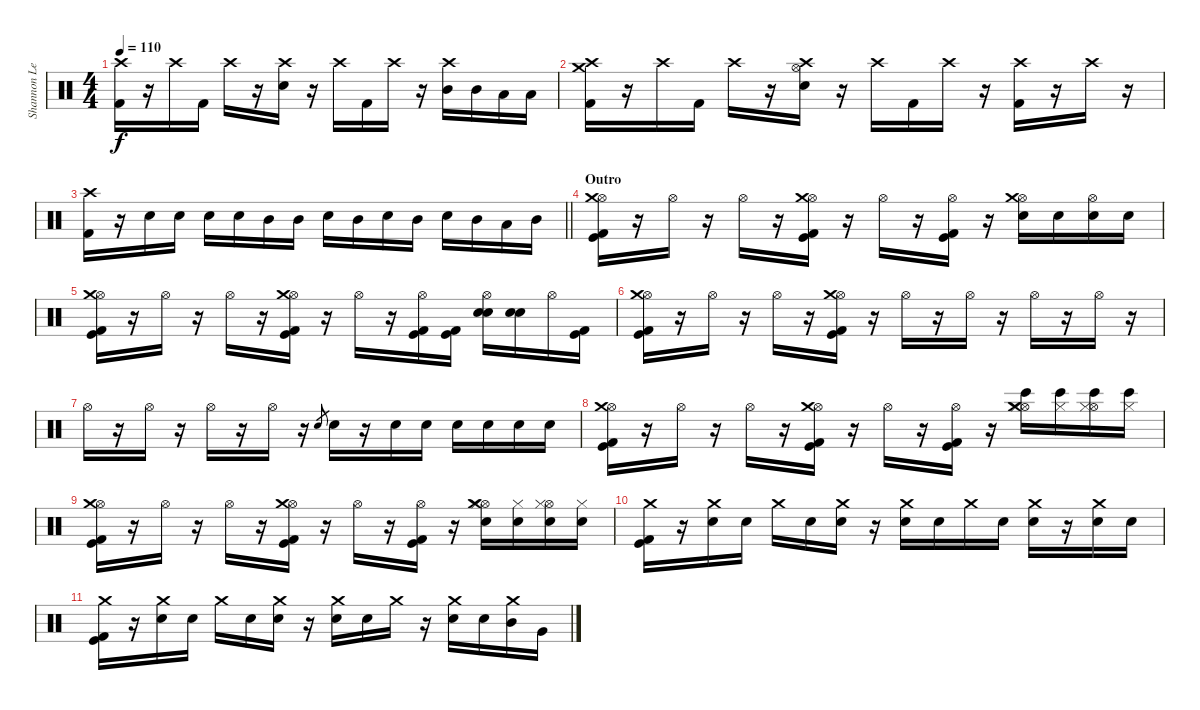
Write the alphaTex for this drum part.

\track ("Shannon Leto [Drums]" "Shannon Le") {instrument percussion}
\staff {score}
\articulation defaults
\ts (4 4)
\tempo 110
\clef neutral
\ks c
("Crash high (hit)" "Kick (hit) 2").16{dy f} r.16 "Crash high (hit)".16 "Kick (hit) 2".16 "Crash high (hit)".16 r.16 ("Crash high (hit)" "Electric Snare (hit)").16 r.16 "Crash high (hit)".16 "Kick (hit) 2".16 "Crash high (hit)".16 r.16 ("Crash high (hit)" "Mid Tom (hit)").16 "Mid Tom (hit)".16 "Low Tom (hit)".16 "Low Tom (hit)".16 |
("Crash high (hit)" "Crash medium (hit)" "Kick (hit) 2").16 r.16 "Crash high (hit)".16 "Kick (hit) 2".16 "Crash high (hit)".16 r.16 ("Crash high (hit)" "Hi-Hat (open)" "Electric Snare (hit)").16 r.16 "Crash high (hit)".16 "Kick (hit) 2".16 "Crash high (hit)".16 r.16 ("Crash high (hit)" "Kick (hit) 2").16 r.16 "Crash high (hit)".16 r.16 |
\barLineRight lightlight
("Crash high (hit)" "Kick (hit) 2").16 r.16 "Electric Snare (hit)".16 "Electric Snare (hit)".16 "Electric Snare (hit)".16 "Electric Snare (hit)".16 "Mid Tom (hit)".16 "Mid Tom (hit)".16 "Electric Snare (hit)".16 "Mid Tom (hit)".16 "Electric Snare (hit)".16 "Mid Tom (hit)".16 "Electric Snare (hit)".16 "Mid Tom (hit)".16 "Low Tom (hit)".16 "Mid Tom (hit)".16 |
\section ("" "Outro")
("Hi-Hat (open)" "Crash medium (hit)" "Kick (hit)" "Kick (hit) 2").16 r.16 "Hi-Hat (open)".16 r.16 "Hi-Hat (open)".16 r.16 ("Hi-Hat (open)" "Crash medium (hit)" "Kick (hit)" "Kick (hit) 2").16 r.16 "Hi-Hat (open)".16 r.16 ("Hi-Hat (open)" "Kick (hit)" "Kick (hit) 2").16 r.16 ("Hi-Hat (open)" "Crash medium (hit)" "Hand Clap (hit)").16 "Hand Clap (hit)".16 ("Hi-Hat (open)" "Hand Clap (hit)").16 "Hand Clap (hit)".16 |
("Hi-Hat (open)" "Crash medium (hit)" "Kick (hit)" "Kick (hit) 2").16 r.16 "Hi-Hat (open)".16 r.16 "Hi-Hat (open)".16 r.16 ("Hi-Hat (open)" "Crash medium (hit)" "Kick (hit)" "Kick (hit) 2").16 r.16 "Hi-Hat (open)".16 r.16 ("Hi-Hat (open)" "Kick (hit)" "Kick (hit) 2").16 ("Kick (hit)" "Kick (hit) 2").16 ("Hi-Hat (open)" "Hand Clap (hit)" "Electric Snare (hit)").16 ("Hand Clap (hit)" "Electric Snare (hit)").16 "Hi-Hat (open)".16 ("Kick (hit)" "Kick (hit) 2").16 |
("Hi-Hat (open)" "Crash medium (hit)" "Kick (hit)" "Kick (hit) 2").16 r.16 "Hi-Hat (open)".16 r.16 "Hi-Hat (open)".16 r.16 ("Hi-Hat (open)" "Crash medium (hit)" "Kick (hit)" "Kick (hit) 2").16 r.16 "Hi-Hat (open)".16 r.16 "Hi-Hat (open)".16 r.16 "Hi-Hat (open)".16 r.16 "Hi-Hat (open)".16 r.16 |
"Hi-Hat (open)".16 r.16 "Hi-Hat (open)".16 r.16 "Hi-Hat (open)".16 r.16 "Hi-Hat (open)".16 r.16 "Electric Snare (hit)".8{gr} "Electric Snare (hit)".16 r.16 "Electric Snare (hit)".16 "Electric Snare (hit)".16 "Electric Snare (hit)".16 "Electric Snare (hit)".16 "Electric Snare (hit)".16 "Electric Snare (hit)".16 |
("Hi-Hat (open)" "Crash medium (hit)" "Kick (hit)" "Kick (hit) 2").16 r.16 "Hi-Hat (open)".16 r.16 "Hi-Hat (open)".16 r.16 ("Hi-Hat (open)" "Crash medium (hit)" "Kick (hit)" "Kick (hit) 2").16 r.16 "Hi-Hat (open)".16 r.16 ("Hi-Hat (open)" "Kick (hit)" "Kick (hit) 2").16 r.16 ("Hi-Hat (open)" "Crash medium (hit)" "Bongo High (hit)" "Hi-Hat (closed)").16 ("Bongo High (hit)" "Hi-Hat (closed)").16 ("Hi-Hat (open)" "Bongo High (hit)" "Hi-Hat (closed)").16 ("Bongo High (hit)" "Hi-Hat (closed)").16 |
("Hi-Hat (open)" "Crash medium (hit)" "Kick (hit)" "Kick (hit) 2").16 r.16 "Hi-Hat (open)".16 r.16 "Hi-Hat (open)".16 r.16 ("Hi-Hat (open)" "Crash medium (hit)" "Kick (hit)" "Kick (hit) 2").16 r.16 "Hi-Hat (open)".16 r.16 ("Hi-Hat (open)" "Kick (hit)" "Kick (hit) 2").16 r.16 ("Hi-Hat (open)" "Crash medium (hit)" "Hand Clap (hit)" "Hi-Hat (closed)").16 ("Hand Clap (hit)" "Hi-Hat (closed)").16 ("Hi-Hat (open)" "Hand Clap (hit)" "Hi-Hat (closed)").16 ("Hand Clap (hit)" "Hi-Hat (closed)").16 |
("Crash medium (hit)" "Kick (hit)" "Kick (hit) 2").16 r.16 ("Crash medium (hit)" "Electric Snare (hit)").16 "Electric Snare (hit)".16 "Crash medium (hit)".16 "Electric Snare (hit)".16 ("Crash medium (hit)" "Electric Snare (hit)").16 r.16 ("Crash medium (hit)" "Electric Snare (hit)").16 "Electric Snare (hit)".16 "Crash medium (hit)".16 "Electric Snare (hit)".16 ("Crash medium (hit)" "Electric Snare (hit)").16 r.16 ("Crash medium (hit)" "Electric Snare (hit)").16 "Electric Snare (hit)".16 |
("Crash medium (hit)" "Kick (hit)" "Kick (hit) 2").16 r.16 ("Crash medium (hit)" "Electric Snare (hit)").16 "Electric Snare (hit)".16 "Crash medium (hit)".16 "Electric Snare (hit)".16 ("Crash medium (hit)" "Electric Snare (hit)").16 r.16 ("Crash medium (hit)" "Electric Snare (hit)").16 "Electric Snare (hit)".16 "Crash medium (hit)".16 r.16 ("Crash medium (hit)" "Electric Snare (hit)").16 "Electric Snare (hit)".16 ("Crash medium (hit)" "Mid Tom (hit)").16 "Very Low Tom (hit)".16
